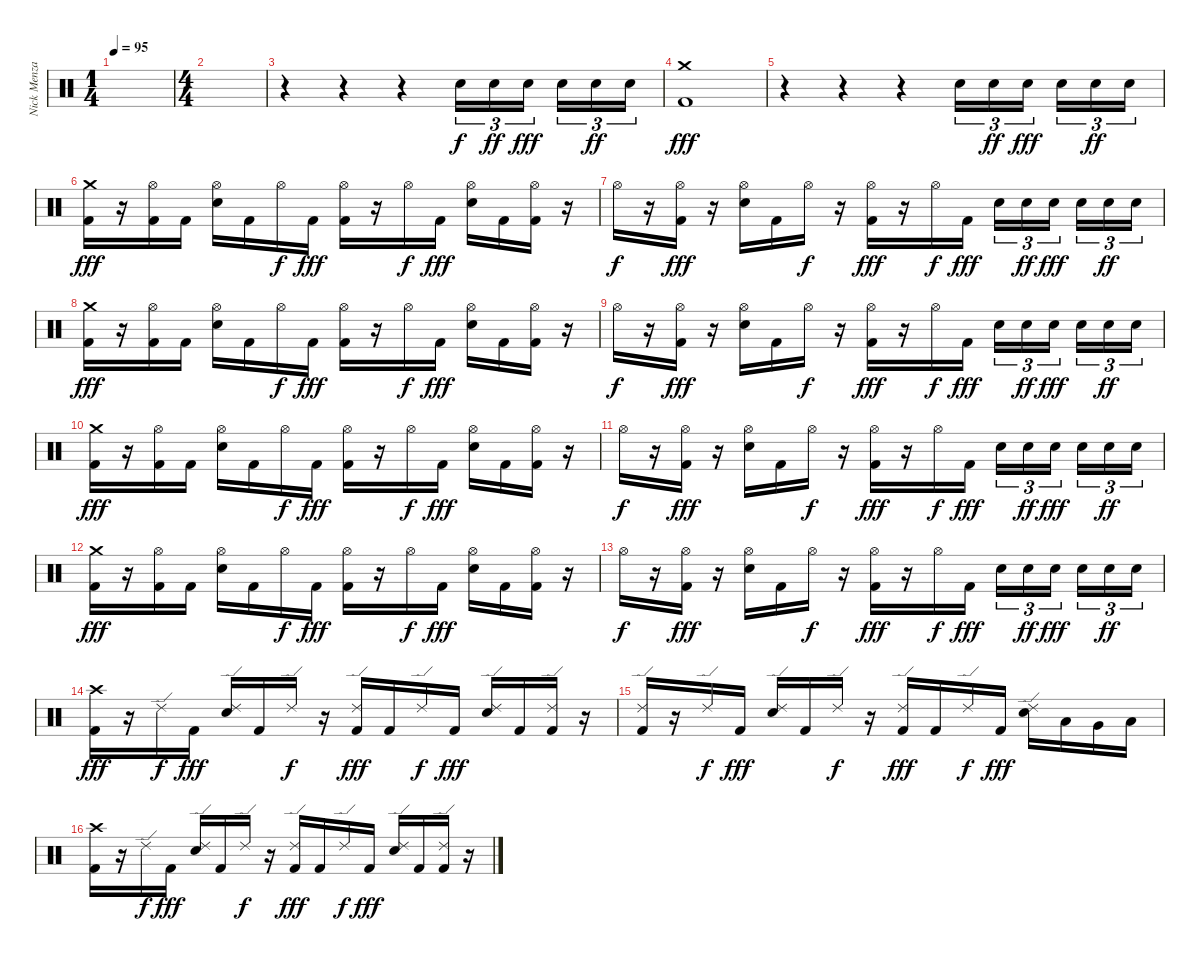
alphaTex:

\track ("Nick Menza" "Nick Menza") {instrument percussion}
\staff {score}
\articulation defaults
\ts (1 4)
\tempo 95
\clef neutral
\ks c
|
\ts (4 4)
|
r.4 r.4 r.4 "Electric Snare (hit)".16{tu (3 2)} "Electric Snare (hit)".16{tu (3 2) dy ff} "Electric Snare (hit)".16{tu (3 2) dy fff} "Electric Snare (hit)".16{tu (3 2)} "Electric Snare (hit)".16{tu (3 2) dy ff} "Electric Snare (hit)".16{tu (3 2)} |
("Kick (hit) 2" "Crash medium (hit)").1{dy fff} |
r.4 r.4 r.4 "Electric Snare (hit)".16{tu (3 2)} "Electric Snare (hit)".16{tu (3 2) dy ff} "Electric Snare (hit)".16{tu (3 2) dy fff} "Electric Snare (hit)".16{tu (3 2)} "Electric Snare (hit)".16{tu (3 2) dy ff} "Electric Snare (hit)".16{tu (3 2)} |
("Kick (hit) 2" "Crash medium (hit)").16{dy fff} r.16 ("Kick (hit) 2" "Hi-Hat (open)").16 "Kick (hit) 2".16 ("Electric Snare (hit)" "Hi-Hat (open)").16 "Kick (hit) 2".16 "Hi-Hat (open)".16{dy f} "Kick (hit) 2".16{dy fff} ("Kick (hit) 2" "Hi-Hat (open)").16 r.16 "Hi-Hat (open)".16{dy f} "Kick (hit) 2".16{dy fff} ("Electric Snare (hit)" "Hi-Hat (open)").16 "Kick (hit) 2".16 ("Kick (hit) 2" "Hi-Hat (open)").16 r.16 |
"Hi-Hat (open)".16{dy f} r.16 ("Kick (hit) 2" "Hi-Hat (open)").16{dy fff} r.16 ("Electric Snare (hit)" "Hi-Hat (open)").16 "Kick (hit) 2".16 "Hi-Hat (open)".16{dy f} r.16 ("Kick (hit) 2" "Hi-Hat (open)").16{dy fff} r.16 "Hi-Hat (open)".16{dy f} "Kick (hit) 2".16{dy fff} "Electric Snare (hit)".16{tu (3 2)} "Electric Snare (hit)".16{tu (3 2) dy ff} "Electric Snare (hit)".16{tu (3 2) dy fff} "Electric Snare (hit)".16{tu (3 2)} "Electric Snare (hit)".16{tu (3 2) dy ff} "Electric Snare (hit)".16{tu (3 2)} |
("Kick (hit) 2" "Crash medium (hit)").16{dy fff} r.16 ("Kick (hit) 2" "Hi-Hat (open)").16 "Kick (hit) 2".16 ("Electric Snare (hit)" "Hi-Hat (open)").16 "Kick (hit) 2".16 "Hi-Hat (open)".16{dy f} "Kick (hit) 2".16{dy fff} ("Kick (hit) 2" "Hi-Hat (open)").16 r.16 "Hi-Hat (open)".16{dy f} "Kick (hit) 2".16{dy fff} ("Electric Snare (hit)" "Hi-Hat (open)").16 "Kick (hit) 2".16 ("Kick (hit) 2" "Hi-Hat (open)").16 r.16 |
"Hi-Hat (open)".16{dy f} r.16 ("Kick (hit) 2" "Hi-Hat (open)").16{dy fff} r.16 ("Electric Snare (hit)" "Hi-Hat (open)").16 "Kick (hit) 2".16 "Hi-Hat (open)".16{dy f} r.16 ("Kick (hit) 2" "Hi-Hat (open)").16{dy fff} r.16 "Hi-Hat (open)".16{dy f} "Kick (hit) 2".16{dy fff} "Electric Snare (hit)".16{tu (3 2)} "Electric Snare (hit)".16{tu (3 2) dy ff} "Electric Snare (hit)".16{tu (3 2) dy fff} "Electric Snare (hit)".16{tu (3 2)} "Electric Snare (hit)".16{tu (3 2) dy ff} "Electric Snare (hit)".16{tu (3 2)} |
("Kick (hit) 2" "Crash medium (hit)").16{dy fff} r.16 ("Kick (hit) 2" "Hi-Hat (open)").16 "Kick (hit) 2".16 ("Electric Snare (hit)" "Hi-Hat (open)").16 "Kick (hit) 2".16 "Hi-Hat (open)".16{dy f} "Kick (hit) 2".16{dy fff} ("Kick (hit) 2" "Hi-Hat (open)").16 r.16 "Hi-Hat (open)".16{dy f} "Kick (hit) 2".16{dy fff} ("Electric Snare (hit)" "Hi-Hat (open)").16 "Kick (hit) 2".16 ("Kick (hit) 2" "Hi-Hat (open)").16 r.16 |
"Hi-Hat (open)".16{dy f} r.16 ("Kick (hit) 2" "Hi-Hat (open)").16{dy fff} r.16 ("Electric Snare (hit)" "Hi-Hat (open)").16 "Kick (hit) 2".16 "Hi-Hat (open)".16{dy f} r.16 ("Kick (hit) 2" "Hi-Hat (open)").16{dy fff} r.16 "Hi-Hat (open)".16{dy f} "Kick (hit) 2".16{dy fff} "Electric Snare (hit)".16{tu (3 2)} "Electric Snare (hit)".16{tu (3 2) dy ff} "Electric Snare (hit)".16{tu (3 2) dy fff} "Electric Snare (hit)".16{tu (3 2)} "Electric Snare (hit)".16{tu (3 2) dy ff} "Electric Snare (hit)".16{tu (3 2)} |
("Kick (hit) 2" "Crash medium (hit)").16{dy fff} r.16 ("Kick (hit) 2" "Hi-Hat (open)").16 "Kick (hit) 2".16 ("Electric Snare (hit)" "Hi-Hat (open)").16 "Kick (hit) 2".16 "Hi-Hat (open)".16{dy f} "Kick (hit) 2".16{dy fff} ("Kick (hit) 2" "Hi-Hat (open)").16 r.16 "Hi-Hat (open)".16{dy f} "Kick (hit) 2".16{dy fff} ("Electric Snare (hit)" "Hi-Hat (open)").16 "Kick (hit) 2".16 ("Kick (hit) 2" "Hi-Hat (open)").16 r.16 |
"Hi-Hat (open)".16{dy f} r.16 ("Kick (hit) 2" "Hi-Hat (open)").16{dy fff} r.16 ("Electric Snare (hit)" "Hi-Hat (open)").16 "Kick (hit) 2".16 "Hi-Hat (open)".16{dy f} r.16 ("Kick (hit) 2" "Hi-Hat (open)").16{dy fff} r.16 "Hi-Hat (open)".16{dy f} "Kick (hit) 2".16{dy fff} "Electric Snare (hit)".16{tu (3 2)} "Electric Snare (hit)".16{tu (3 2) dy ff} "Electric Snare (hit)".16{tu (3 2) dy fff} "Electric Snare (hit)".16{tu (3 2)} "Electric Snare (hit)".16{tu (3 2) dy ff} "Electric Snare (hit)".16{tu (3 2)} |
("Kick (hit) 2" "Crash high (hit)").16{dy fff} r.16 "Ride (edge) 2".16{dy f} "Kick (hit) 2".16{dy fff} ("Electric Snare (hit)" "Ride (edge) 2").16 "Kick (hit) 2".16 "Ride (edge) 2".16{dy f} r.16 ("Kick (hit) 2" "Ride (edge) 2").16{dy fff} "Kick (hit) 2".16 "Ride (edge) 2".16{dy f} "Kick (hit) 2".16{dy fff} ("Electric Snare (hit)" "Ride (edge) 2").16 "Kick (hit) 2".16 ("Kick (hit) 2" "Ride (edge) 2").16 r.16 |
("Kick (hit) 2" "Ride (edge) 2").16 r.16 "Ride (edge) 2".16{dy f} "Kick (hit) 2".16{dy fff} ("Electric Snare (hit)" "Ride (edge) 2").16 "Kick (hit) 2".16 "Ride (edge) 2".16{dy f} r.16 ("Kick (hit) 2" "Ride (edge) 2").16{dy fff} "Kick (hit) 2".16 "Ride (edge) 2".16{dy f} "Kick (hit) 2".16{dy fff} ("Electric Snare (hit)" "Ride (edge) 2").16 "Low Tom (hit)".16 "Very Low Tom (hit)".16 "Low Floor Tom (hit)".16 |
("Kick (hit) 2" "Crash high (hit)").16 r.16 "Ride (edge) 2".16{dy f} "Kick (hit) 2".16{dy fff} ("Electric Snare (hit)" "Ride (edge) 2").16 "Kick (hit) 2".16 "Ride (edge) 2".16{dy f} r.16 ("Kick (hit) 2" "Ride (edge) 2").16{dy fff} "Kick (hit) 2".16 "Ride (edge) 2".16{dy f} "Kick (hit) 2".16{dy fff} ("Electric Snare (hit)" "Ride (edge) 2").16 "Kick (hit) 2".16 ("Kick (hit) 2" "Ride (edge) 2").16 r.16
